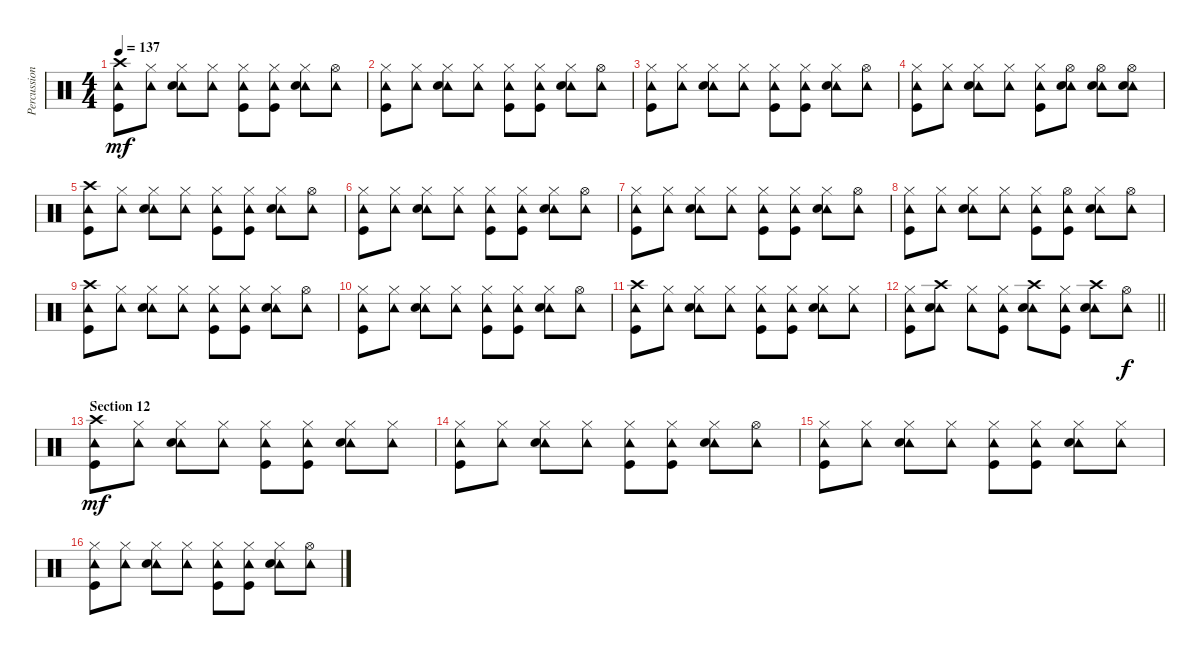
\track ("Percussion" "Percussion") {instrument percussion}
\staff {score}
\articulation defaults
\ts (4 4)
\tempo 137
\clef neutral
\ks c
("Tambourine (hit)" "Crash high (hit)" "Kick (hit)").8{dy mf} ("Tambourine (hit)" "Hi-Hat (closed)").8 ("Tambourine (hit)" "Hi-Hat (closed)" "Snare (hit) 2").8 ("Tambourine (hit)" "Hi-Hat (closed)").8 ("Tambourine (hit)" "Hi-Hat (closed)" "Kick (hit)").8 ("Tambourine (hit)" "Hi-Hat (closed)" "Kick (hit)").8 ("Tambourine (hit)" "Hi-Hat (closed)" "Snare (hit) 2").8 ("Tambourine (hit)" "Hi-Hat (open)").8 |
("Tambourine (hit)" "Hi-Hat (closed)" "Kick (hit)").8 ("Tambourine (hit)" "Hi-Hat (closed)").8 ("Tambourine (hit)" "Hi-Hat (closed)" "Snare (hit) 2").8 ("Tambourine (hit)" "Hi-Hat (closed)").8 ("Tambourine (hit)" "Hi-Hat (closed)" "Kick (hit)").8 ("Tambourine (hit)" "Hi-Hat (closed)" "Kick (hit)").8 ("Tambourine (hit)" "Hi-Hat (closed)" "Snare (hit) 2").8 ("Tambourine (hit)" "Hi-Hat (open)").8 |
("Tambourine (hit)" "Hi-Hat (closed)" "Kick (hit)").8 ("Tambourine (hit)" "Hi-Hat (closed)").8 ("Tambourine (hit)" "Hi-Hat (closed)" "Snare (hit) 2").8 ("Tambourine (hit)" "Hi-Hat (closed)").8 ("Tambourine (hit)" "Hi-Hat (closed)" "Kick (hit)").8 ("Tambourine (hit)" "Hi-Hat (closed)" "Kick (hit)").8 ("Tambourine (hit)" "Hi-Hat (closed)" "Snare (hit) 2").8 ("Tambourine (hit)" "Hi-Hat (open)").8 |
("Tambourine (hit)" "Hi-Hat (closed)" "Kick (hit)").8 ("Tambourine (hit)" "Hi-Hat (closed)").8 ("Tambourine (hit)" "Hi-Hat (closed)" "Snare (hit) 2").8 ("Tambourine (hit)" "Hi-Hat (closed)").8 ("Tambourine (hit)" "Hi-Hat (closed)" "Kick (hit)").8 ("Tambourine (hit)" "Hi-Hat (open)" "Snare (hit) 2").8 ("Tambourine (hit)" "Hi-Hat (open)" "Snare (hit) 2").8 ("Tambourine (hit)" "Hi-Hat (open)" "Snare (hit) 2").8 |
("Tambourine (hit)" "Crash high (hit)" "Kick (hit)").8 ("Tambourine (hit)" "Hi-Hat (closed)").8 ("Tambourine (hit)" "Hi-Hat (closed)" "Snare (hit) 2").8 ("Tambourine (hit)" "Hi-Hat (closed)").8 ("Tambourine (hit)" "Hi-Hat (closed)" "Kick (hit)").8 ("Tambourine (hit)" "Hi-Hat (closed)" "Kick (hit)").8 ("Tambourine (hit)" "Hi-Hat (closed)" "Snare (hit) 2").8 ("Tambourine (hit)" "Hi-Hat (open)").8 |
("Tambourine (hit)" "Hi-Hat (closed)" "Kick (hit)").8 ("Tambourine (hit)" "Hi-Hat (closed)").8 ("Tambourine (hit)" "Hi-Hat (closed)" "Snare (hit) 2").8 ("Tambourine (hit)" "Hi-Hat (closed)").8 ("Tambourine (hit)" "Hi-Hat (closed)" "Kick (hit)").8 ("Tambourine (hit)" "Hi-Hat (closed)" "Kick (hit)").8 ("Tambourine (hit)" "Hi-Hat (closed)" "Snare (hit) 2").8 ("Tambourine (hit)" "Hi-Hat (open)").8 |
("Tambourine (hit)" "Hi-Hat (closed)" "Kick (hit)").8 ("Tambourine (hit)" "Hi-Hat (closed)").8 ("Tambourine (hit)" "Hi-Hat (closed)" "Snare (hit) 2").8 ("Tambourine (hit)" "Hi-Hat (closed)").8 ("Tambourine (hit)" "Hi-Hat (closed)" "Kick (hit)").8 ("Tambourine (hit)" "Hi-Hat (closed)" "Kick (hit)").8 ("Tambourine (hit)" "Hi-Hat (closed)" "Snare (hit) 2").8 ("Tambourine (hit)" "Hi-Hat (open)").8 |
("Tambourine (hit)" "Hi-Hat (closed)" "Kick (hit)").8 ("Tambourine (hit)" "Hi-Hat (closed)").8 ("Tambourine (hit)" "Hi-Hat (closed)" "Snare (hit) 2").8 ("Tambourine (hit)" "Hi-Hat (closed)").8 ("Tambourine (hit)" "Hi-Hat (closed)" "Kick (hit)").8 ("Tambourine (hit)" "Hi-Hat (open)" "Kick (hit)").8 ("Tambourine (hit)" "Hi-Hat (closed)" "Snare (hit) 2").8 ("Tambourine (hit)" "Hi-Hat (open)").8 |
("Tambourine (hit)" "Crash high (hit)" "Kick (hit)").8 ("Tambourine (hit)" "Hi-Hat (closed)").8 ("Tambourine (hit)" "Hi-Hat (closed)" "Snare (hit) 2").8 ("Tambourine (hit)" "Hi-Hat (closed)").8 ("Tambourine (hit)" "Hi-Hat (closed)" "Kick (hit)").8 ("Tambourine (hit)" "Hi-Hat (closed)" "Kick (hit)").8 ("Tambourine (hit)" "Hi-Hat (closed)" "Snare (hit) 2").8 ("Tambourine (hit)" "Hi-Hat (open)").8 |
("Tambourine (hit)" "Hi-Hat (closed)" "Kick (hit)").8 ("Tambourine (hit)" "Hi-Hat (closed)").8 ("Tambourine (hit)" "Hi-Hat (closed)" "Snare (hit) 2").8 ("Tambourine (hit)" "Hi-Hat (closed)").8 ("Tambourine (hit)" "Hi-Hat (closed)" "Kick (hit)").8 ("Tambourine (hit)" "Hi-Hat (closed)" "Kick (hit)").8 ("Tambourine (hit)" "Hi-Hat (closed)" "Snare (hit) 2").8 ("Tambourine (hit)" "Hi-Hat (open)").8 |
("Tambourine (hit)" "Crash high (hit)" "Kick (hit)").8 ("Tambourine (hit)" "Hi-Hat (closed)").8 ("Tambourine (hit)" "Hi-Hat (closed)" "Snare (hit) 2").8 ("Tambourine (hit)" "Hi-Hat (closed)").8 ("Tambourine (hit)" "Hi-Hat (closed)" "Kick (hit)").8 ("Tambourine (hit)" "Hi-Hat (closed)" "Kick (hit)").8 ("Tambourine (hit)" "Hi-Hat (closed)" "Snare (hit) 2").8 ("Tambourine (hit)" "Hi-Hat (closed)").8 |
\barLineRight lightlight
("Tambourine (hit)" "Hi-Hat (closed)" "Kick (hit)").8 ("Tambourine (hit)" "Crash high (hit)" "Snare (hit) 2").8 ("Tambourine (hit)" "Hi-Hat (closed)").8 ("Tambourine (hit)" "Hi-Hat (closed)" "Kick (hit)").8 ("Tambourine (hit)" "Crash high (hit)" "Snare (hit) 2").8 ("Tambourine (hit)" "Hi-Hat (closed)" "Kick (hit)").8 ("Tambourine (hit)" "Crash high (hit)" "Snare (hit) 2").8 ("Tambourine (hit)" "Hi-Hat (open)").8{dy f} |
\section ("" "Section 12")
("Tambourine (hit)" "Crash high (hit)" "Kick (hit)").8{dy mf} ("Tambourine (hit)" "Hi-Hat (closed)").8 ("Tambourine (hit)" "Hi-Hat (closed)" "Snare (hit) 2").8 ("Tambourine (hit)" "Hi-Hat (closed)").8 ("Tambourine (hit)" "Hi-Hat (closed)" "Kick (hit)").8 ("Tambourine (hit)" "Hi-Hat (closed)" "Kick (hit)").8 ("Tambourine (hit)" "Hi-Hat (closed)" "Snare (hit) 2").8 ("Tambourine (hit)" "Hi-Hat (closed)").8 |
("Tambourine (hit)" "Hi-Hat (closed)" "Kick (hit)").8 ("Tambourine (hit)" "Hi-Hat (closed)").8 ("Tambourine (hit)" "Hi-Hat (closed)" "Snare (hit) 2").8 ("Tambourine (hit)" "Hi-Hat (closed)").8 ("Tambourine (hit)" "Hi-Hat (closed)" "Kick (hit)").8 ("Tambourine (hit)" "Hi-Hat (closed)" "Kick (hit)").8 ("Tambourine (hit)" "Hi-Hat (closed)" "Snare (hit) 2").8 ("Tambourine (hit)" "Hi-Hat (open)").8 |
("Tambourine (hit)" "Hi-Hat (closed)" "Kick (hit)").8 ("Tambourine (hit)" "Hi-Hat (closed)").8 ("Tambourine (hit)" "Hi-Hat (closed)" "Snare (hit) 2").8 ("Tambourine (hit)" "Hi-Hat (closed)").8 ("Tambourine (hit)" "Hi-Hat (closed)" "Kick (hit)").8 ("Tambourine (hit)" "Hi-Hat (closed)" "Kick (hit)").8 ("Tambourine (hit)" "Hi-Hat (closed)" "Snare (hit) 2").8 ("Tambourine (hit)" "Hi-Hat (closed)").8 |
("Tambourine (hit)" "Hi-Hat (closed)" "Kick (hit)").8 ("Tambourine (hit)" "Hi-Hat (closed)").8 ("Tambourine (hit)" "Hi-Hat (closed)" "Snare (hit) 2").8 ("Tambourine (hit)" "Hi-Hat (closed)").8 ("Tambourine (hit)" "Hi-Hat (closed)" "Kick (hit)").8 ("Tambourine (hit)" "Hi-Hat (closed)" "Kick (hit)").8 ("Tambourine (hit)" "Hi-Hat (closed)" "Snare (hit) 2").8 ("Tambourine (hit)" "Hi-Hat (open)").8
